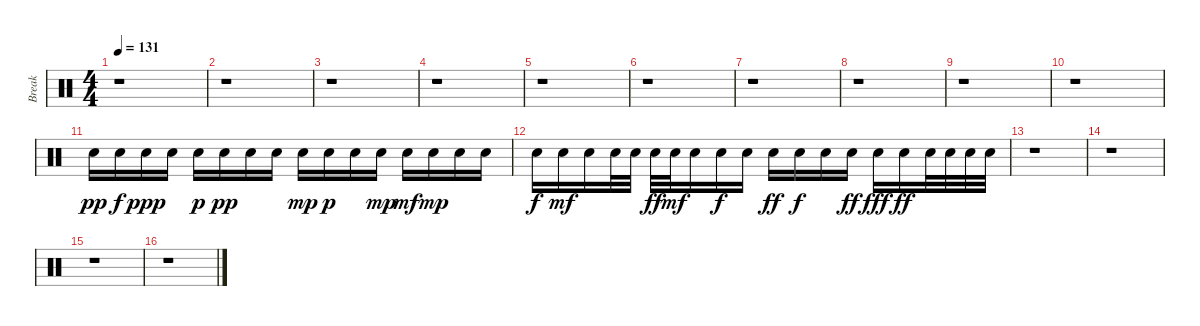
\track ("Break" "Break") {instrument percussion}
\staff {score}
\articulation defaults
\ts (4 4)
\tempo 131
\clef neutral
\ks c
r.1{dy f} |
r.1 |
r.1 |
r.1 |
r.1 |
r.1 |
r.1 |
r.1 |
r.1 |
r.1 |
"Snare (hit) 2".16{dy pp} "Snare (hit) 2".16{dy f} "Snare (hit) 2".16{dy ppp} "Snare (hit) 2".16 "Snare (hit) 2".16{dy p} "Snare (hit) 2".16{dy pp} "Snare (hit) 2".16 "Snare (hit) 2".16 "Snare (hit) 2".16{dy mp} "Snare (hit) 2".16{dy p} "Snare (hit) 2".16 "Snare (hit) 2".16{dy mp} "Snare (hit) 2".16{dy mf} "Snare (hit) 2".16{dy mp} "Snare (hit) 2".16 "Snare (hit) 2".16 |
"Snare (hit) 2".16{dy f} "Snare (hit) 2".16{dy mf} "Snare (hit) 2".16 "Snare (hit) 2".32 "Snare (hit) 2".32 "Snare (hit) 2".32{dy ff} "Snare (hit) 2".32{dy mf} "Snare (hit) 2".16 "Snare (hit) 2".16{dy f} "Snare (hit) 2".16 "Snare (hit) 2".16{dy ff} "Snare (hit) 2".16{dy f} "Snare (hit) 2".16 "Snare (hit) 2".16{dy ff} "Snare (hit) 2".16{dy fff} "Snare (hit) 2".16{dy ff} "Snare (hit) 2".32 "Snare (hit) 2".32 "Snare (hit) 2".32 "Snare (hit) 2".32 |
r.1 |
r.1 |
r.1 |
r.1
